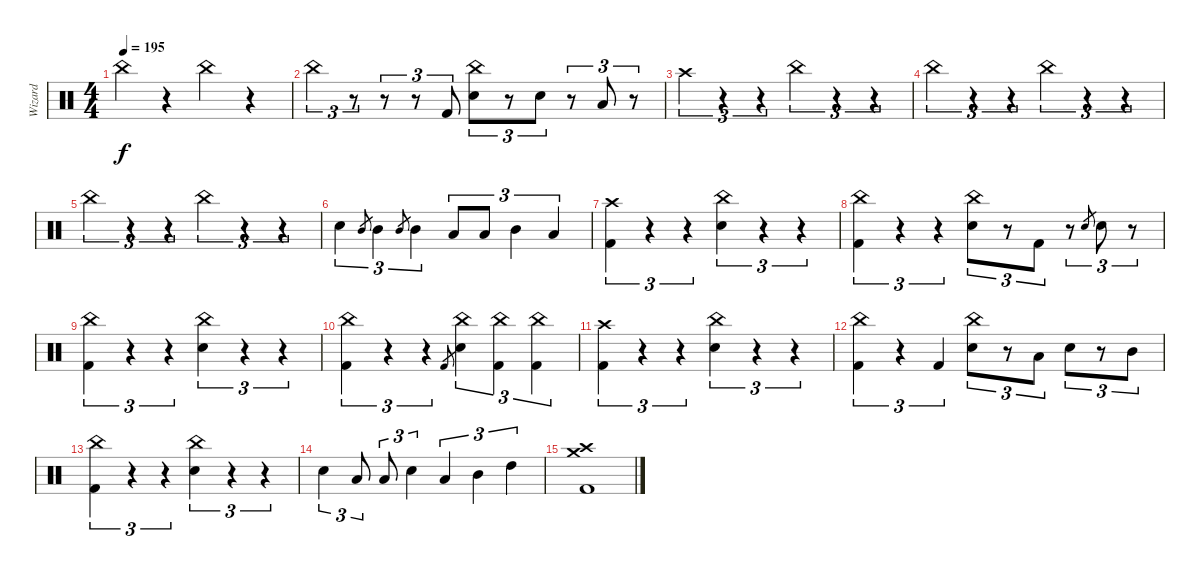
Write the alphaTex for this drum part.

\track ("Wizard" "Wizard") {instrument percussion}
\staff {score}
\articulation defaults
\ts (4 4)
\tempo 195
\clef neutral
\ks c "China (hit)".4{dy f}
r.4 "China (hit)".4 r.4 |
"China (hit)".4{tu (3 2)} r.8{tu (3 2)} r.8{tu (3 2)} r.8{tu (3 2)} "Kick (hit) 2".8{tu (3 2)} ("China (hit)" "Snare (hit) 2").8{tu (3 2)} r.8{tu (3 2)} "Snare (hit) 2".8{tu (3 2)} r.8{tu (3 2)} "Low Tom (hit)".8{tu (3 2)} r.8{tu (3 2)} |
"Crash high (hit)".4{tu (3 2)} r.4{tu (3 2)} r.4{tu (3 2)} "China (hit)".4{tu (3 2)} r.4{tu (3 2)} r.4{tu (3 2)} |
"China (hit)".4{tu (3 2)} r.4{tu (3 2)} r.4{tu (3 2)} "China (hit)".4{tu (3 2)} r.4{tu (3 2)} r.4{tu (3 2)} |
"China (hit)".4{tu (3 2)} r.4{tu (3 2)} r.4{tu (3 2)} "China (hit)".4{tu (3 2)} r.4{tu (3 2)} r.4{tu (3 2)} |
"Snare (hit) 2".4{tu (3 2)} "Mid Tom (hit)".8{gr} "Mid Tom (hit)".4{tu (3 2)} "Mid Tom (hit)".8{gr} "Mid Tom (hit)".4{tu (3 2)} "Low Tom (hit)".8{tu (3 2)} "Low Tom (hit)".8{tu (3 2)} "Mid Tom (hit)".4{tu (3 2)} "Low Tom (hit)".4{tu (3 2)} |
("Crash high (hit)" "Kick (hit) 2").4{tu (3 2)} r.4{tu (3 2)} r.4{tu (3 2)} ("China (hit)" "Snare (hit) 2").4{tu (3 2)} r.4{tu (3 2)} r.4{tu (3 2)} |
("China (hit)" "Kick (hit) 2").4{tu (3 2)} r.4{tu (3 2)} r.4{tu (3 2)} ("China (hit)" "Snare (hit) 2").8{tu (3 2)} r.8{tu (3 2)} "Kick (hit) 2".8{tu (3 2)} r.8{tu (3 2)} "Snare (hit) 2".8{gr} "Snare (hit) 2".8{tu (3 2)} r.8{tu (3 2)} |
("China (hit)" "Kick (hit) 2").4{tu (3 2)} r.4{tu (3 2)} r.4{tu (3 2)} ("China (hit)" "Snare (hit) 2").4{tu (3 2)} r.4{tu (3 2)} r.4{tu (3 2)} |
("China (hit)" "Kick (hit) 2").4{tu (3 2)} r.4{tu (3 2)} r.4{tu (3 2)} "Kick (hit) 2".8{gr} ("China (hit)" "Snare (hit) 2").4{tu (3 2)} ("China (hit)" "Kick (hit) 2").4{tu (3 2)} ("China (hit)" "Kick (hit) 2").4{tu (3 2)} |
("Crash high (hit)" "Kick (hit) 2").4{tu (3 2)} r.4{tu (3 2)} r.4{tu (3 2)} ("China (hit)" "Snare (hit) 2").4{tu (3 2)} r.4{tu (3 2)} r.4{tu (3 2)} |
("China (hit)" "Kick (hit) 2").4{tu (3 2)} r.4{tu (3 2)} "Kick (hit) 2".4{tu (3 2)} ("China (hit)" "Snare (hit) 2").8{tu (3 2)} r.8{tu (3 2)} "Low Tom (hit)".8{tu (3 2)} "Snare (hit) 2".8{tu (3 2)} r.8{tu (3 2)} "Mid Tom (hit)".8{tu (3 2)} |
("China (hit)" "Kick (hit) 2").4{tu (3 2)} r.4{tu (3 2)} r.4{tu (3 2)} ("China (hit)" "Snare (hit) 2").4{tu (3 2)} r.4{tu (3 2)} r.4{tu (3 2)} |
"Snare (hit) 2".4{tu (3 2)} "Low Tom (hit)".8{tu (3 2)} "Low Tom (hit)".8{tu (3 2)} "Snare (hit) 2".4{tu (3 2)} "Low Tom (hit)".4{tu (3 2)} "Mid Tom (hit)".4{tu (3 2)} "High Tom (hit)".4{tu (3 2)} |
("Crash high (hit)" "Crash medium (hit)" "Kick (hit) 2").1
